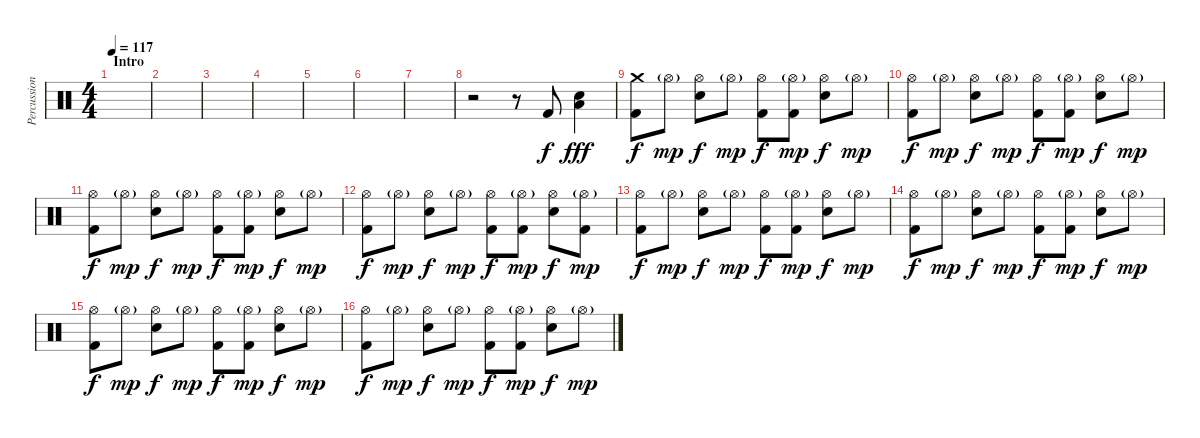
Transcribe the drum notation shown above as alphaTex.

\track ("Percussion" "Percussion") {instrument percussion}
\staff {score}
\articulation defaults
\ts (4 4)
\section ("" "Intro")
\tempo 117
\clef neutral
\ks c
|
|
|
|
|
|
|
r.2 r.8 "Kick (hit) 2".8 ("Low Floor Tom (hit)" "Electric Snare (hit)").4{dy fff} |
("Crash medium (hit)" "Kick (hit) 2").8{dy f} "Hi-Hat (open)"{g}.8{dy mp} ("Hi-Hat (open)" "Electric Snare (hit)").8{dy f} "Hi-Hat (open)"{g}.8{dy mp} ("Hi-Hat (open)" "Kick (hit) 2").8{dy f} ("Hi-Hat (open)"{g} "Kick (hit) 2").8{dy mp} ("Hi-Hat (open)" "Electric Snare (hit)").8{dy f} "Hi-Hat (open)"{g}.8{dy mp} |
("Hi-Hat (open)" "Kick (hit) 2").8{dy f} "Hi-Hat (open)"{g}.8{dy mp} ("Hi-Hat (open)" "Electric Snare (hit)").8{dy f} "Hi-Hat (open)"{g}.8{dy mp} ("Hi-Hat (open)" "Kick (hit) 2").8{dy f} ("Hi-Hat (open)"{g} "Kick (hit) 2").8{dy mp} ("Hi-Hat (open)" "Electric Snare (hit)").8{dy f} "Hi-Hat (open)"{g}.8{dy mp} |
("Hi-Hat (open)" "Kick (hit) 2").8{dy f} "Hi-Hat (open)"{g}.8{dy mp} ("Hi-Hat (open)" "Electric Snare (hit)").8{dy f} "Hi-Hat (open)"{g}.8{dy mp} ("Hi-Hat (open)" "Kick (hit) 2").8{dy f} ("Hi-Hat (open)"{g} "Kick (hit) 2").8{dy mp} ("Hi-Hat (open)" "Electric Snare (hit)").8{dy f} "Hi-Hat (open)"{g}.8{dy mp} |
("Hi-Hat (open)" "Kick (hit) 2").8{dy f} "Hi-Hat (open)"{g}.8{dy mp} ("Hi-Hat (open)" "Electric Snare (hit)").8{dy f} "Hi-Hat (open)"{g}.8{dy mp} ("Hi-Hat (open)" "Kick (hit) 2").8{dy f} ("Hi-Hat (open)"{g} "Kick (hit) 2").8{dy mp} ("Hi-Hat (open)" "Electric Snare (hit)").8{dy f} ("Hi-Hat (open)"{g} "Kick (hit) 2").8{dy mp} |
("Hi-Hat (open)" "Kick (hit) 2").8{dy f} "Hi-Hat (open)"{g}.8{dy mp} ("Hi-Hat (open)" "Electric Snare (hit)").8{dy f} "Hi-Hat (open)"{g}.8{dy mp} ("Hi-Hat (open)" "Kick (hit) 2").8{dy f} ("Hi-Hat (open)"{g} "Kick (hit) 2").8{dy mp} ("Hi-Hat (open)" "Electric Snare (hit)").8{dy f} "Hi-Hat (open)"{g}.8{dy mp} |
("Hi-Hat (open)" "Kick (hit) 2").8{dy f} "Hi-Hat (open)"{g}.8{dy mp} ("Hi-Hat (open)" "Electric Snare (hit)").8{dy f} "Hi-Hat (open)"{g}.8{dy mp} ("Hi-Hat (open)" "Kick (hit) 2").8{dy f} ("Hi-Hat (open)"{g} "Kick (hit) 2").8{dy mp} ("Hi-Hat (open)" "Electric Snare (hit)").8{dy f} "Hi-Hat (open)"{g}.8{dy mp} |
("Hi-Hat (open)" "Kick (hit) 2").8{dy f} "Hi-Hat (open)"{g}.8{dy mp} ("Hi-Hat (open)" "Electric Snare (hit)").8{dy f} "Hi-Hat (open)"{g}.8{dy mp} ("Hi-Hat (open)" "Kick (hit) 2").8{dy f} ("Hi-Hat (open)"{g} "Kick (hit) 2").8{dy mp} ("Hi-Hat (open)" "Electric Snare (hit)").8{dy f} "Hi-Hat (open)"{g}.8{dy mp} |
("Hi-Hat (open)" "Kick (hit) 2").8{dy f} "Hi-Hat (open)"{g}.8{dy mp} ("Hi-Hat (open)" "Electric Snare (hit)").8{dy f} "Hi-Hat (open)"{g}.8{dy mp} ("Hi-Hat (open)" "Kick (hit) 2").8{dy f} ("Hi-Hat (open)"{g} "Kick (hit) 2").8{dy mp} ("Hi-Hat (open)" "Electric Snare (hit)").8{dy f} "Hi-Hat (open)"{g}.8{dy mp}
